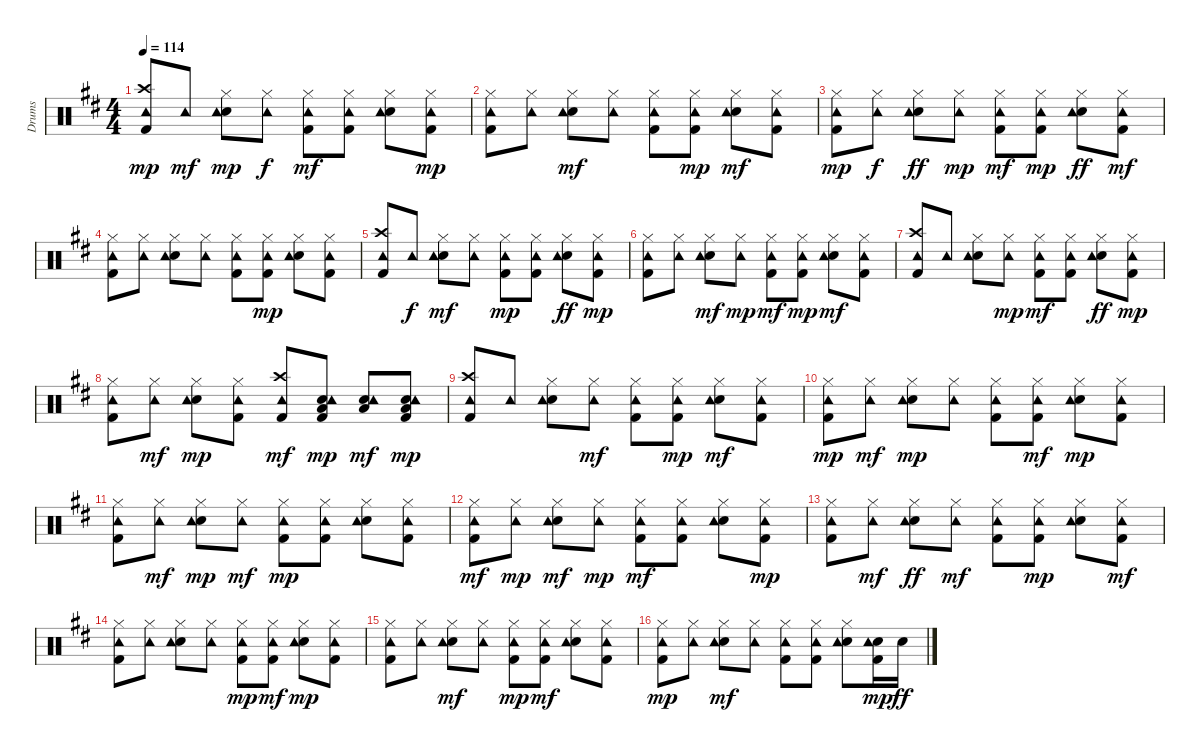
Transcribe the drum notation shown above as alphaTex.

\track ("Drums" "Drums") {instrument percussion}
\staff {score}
\articulation defaults
\ts (4 4)
\tempo 114
\clef neutral
\ks d
("Kick (hit) 2" "Crash high (hit)" "Tambourine (hit)").8{dy mp} "Tambourine (hit)".8{dy mf} ("Snare (hit) 2" "Hi-Hat (closed)" "Tambourine (hit)").8{dy mp} ("Hi-Hat (closed)" "Tambourine (hit)").8{dy f} ("Kick (hit) 2" "Hi-Hat (closed)" "Tambourine (hit)").8{dy mf} ("Kick (hit) 2" "Hi-Hat (closed)" "Tambourine (hit)").8 ("Snare (hit) 2" "Hi-Hat (closed)" "Tambourine (hit)").8 ("Kick (hit) 2" "Hi-Hat (closed)" "Tambourine (hit)").8{dy mp} |
("Kick (hit) 2" "Hi-Hat (closed)" "Tambourine (hit)").8 ("Hi-Hat (closed)" "Tambourine (hit)").8 ("Snare (hit) 2" "Hi-Hat (closed)" "Tambourine (hit)").8{dy mf} ("Hi-Hat (closed)" "Tambourine (hit)").8 ("Kick (hit) 2" "Hi-Hat (closed)" "Tambourine (hit)").8 ("Kick (hit) 2" "Hi-Hat (closed)" "Tambourine (hit)").8{dy mp} ("Snare (hit) 2" "Hi-Hat (closed)" "Tambourine (hit)").8{dy mf} ("Kick (hit) 2" "Hi-Hat (closed)" "Tambourine (hit)").8 |
("Kick (hit) 2" "Hi-Hat (closed)" "Tambourine (hit)").8{dy mp} ("Hi-Hat (closed)" "Tambourine (hit)").8{dy f} ("Snare (hit) 2" "Hi-Hat (closed)" "Tambourine (hit)").8{dy ff} ("Hi-Hat (closed)" "Tambourine (hit)").8{dy mp} ("Kick (hit) 2" "Hi-Hat (closed)" "Tambourine (hit)").8{dy mf} ("Kick (hit) 2" "Hi-Hat (closed)" "Tambourine (hit)").8{dy mp} ("Snare (hit) 2" "Hi-Hat (closed)" "Tambourine (hit)").8{dy ff} ("Kick (hit) 2" "Hi-Hat (closed)" "Tambourine (hit)").8{dy mf} |
("Kick (hit) 2" "Hi-Hat (closed)" "Tambourine (hit)").8 ("Hi-Hat (closed)" "Tambourine (hit)").8 ("Snare (hit) 2" "Hi-Hat (closed)" "Tambourine (hit)").8 ("Hi-Hat (closed)" "Tambourine (hit)").8 ("Kick (hit) 2" "Hi-Hat (closed)" "Tambourine (hit)").8 ("Kick (hit) 2" "Hi-Hat (closed)" "Tambourine (hit)").8{dy mp} ("Snare (hit) 2" "Hi-Hat (closed)" "Tambourine (hit)").8 ("Kick (hit) 2" "Hi-Hat (closed)" "Tambourine (hit)").8 |
("Kick (hit) 2" "Crash high (hit)" "Tambourine (hit)").8 "Tambourine (hit)".8{dy f} ("Snare (hit) 2" "Hi-Hat (closed)" "Tambourine (hit)").8{dy mf} ("Hi-Hat (closed)" "Tambourine (hit)").8 ("Kick (hit) 2" "Hi-Hat (closed)" "Tambourine (hit)").8{dy mp} ("Kick (hit) 2" "Hi-Hat (closed)" "Tambourine (hit)").8 ("Snare (hit) 2" "Hi-Hat (closed)" "Tambourine (hit)").8{dy ff} ("Kick (hit) 2" "Hi-Hat (closed)" "Tambourine (hit)").8{dy mp} |
("Kick (hit) 2" "Hi-Hat (closed)" "Tambourine (hit)").8 ("Hi-Hat (closed)" "Tambourine (hit)").8 ("Snare (hit) 2" "Hi-Hat (closed)" "Tambourine (hit)").8{dy mf} ("Hi-Hat (closed)" "Tambourine (hit)").8{dy mp} ("Kick (hit) 2" "Hi-Hat (closed)" "Tambourine (hit)").8{dy mf} ("Kick (hit) 2" "Hi-Hat (closed)" "Tambourine (hit)").8{dy mp} ("Snare (hit) 2" "Hi-Hat (closed)" "Tambourine (hit)").8{dy mf} ("Kick (hit) 2" "Hi-Hat (closed)" "Tambourine (hit)").8 |
("Kick (hit) 2" "Crash high (hit)" "Tambourine (hit)").8 "Tambourine (hit)".8 ("Snare (hit) 2" "Hi-Hat (closed)" "Tambourine (hit)").8 ("Hi-Hat (closed)" "Tambourine (hit)").8{dy mp} ("Kick (hit) 2" "Hi-Hat (closed)" "Tambourine (hit)").8{dy mf} ("Kick (hit) 2" "Hi-Hat (closed)" "Tambourine (hit)").8 ("Snare (hit) 2" "Hi-Hat (closed)" "Tambourine (hit)").8{dy ff} ("Kick (hit) 2" "Hi-Hat (closed)" "Tambourine (hit)").8{dy mp} |
("Kick (hit) 2" "Hi-Hat (closed)" "Tambourine (hit)").8 ("Hi-Hat (closed)" "Tambourine (hit)").8{dy mf} ("Snare (hit) 2" "Hi-Hat (closed)" "Tambourine (hit)").8{dy mp} ("Kick (hit) 2" "Hi-Hat (closed)" "Tambourine (hit)").8 ("Kick (hit) 2" "Crash high (hit)" "Tambourine (hit)").8{dy mf} ("Kick (hit) 2" "Snare (hit) 2" "Low Floor Tom (hit)" "Tambourine (hit)").8{dy mp} ("Snare (hit) 2" "Low Floor Tom (hit)" "Tambourine (hit)").8{dy mf} ("Kick (hit) 2" "Snare (hit) 2" "Low Floor Tom (hit)" "Tambourine (hit)").8{dy mp} |
("Kick (hit) 2" "Crash high (hit)" "Tambourine (hit)").8 "Tambourine (hit)".8 ("Snare (hit) 2" "Hi-Hat (closed)" "Tambourine (hit)").8 ("Hi-Hat (closed)" "Tambourine (hit)").8{dy mf} ("Kick (hit) 2" "Hi-Hat (closed)" "Tambourine (hit)").8 ("Kick (hit) 2" "Hi-Hat (closed)" "Tambourine (hit)").8{dy mp} ("Snare (hit) 2" "Hi-Hat (closed)" "Tambourine (hit)").8{dy mf} ("Kick (hit) 2" "Hi-Hat (closed)" "Tambourine (hit)").8 |
("Kick (hit) 2" "Hi-Hat (closed)" "Tambourine (hit)").8{dy mp} ("Hi-Hat (closed)" "Tambourine (hit)").8{dy mf} ("Snare (hit) 2" "Hi-Hat (closed)" "Tambourine (hit)").8{dy mp} ("Hi-Hat (closed)" "Tambourine (hit)").8 ("Kick (hit) 2" "Hi-Hat (closed)" "Tambourine (hit)").8 ("Kick (hit) 2" "Hi-Hat (closed)" "Tambourine (hit)").8{dy mf} ("Snare (hit) 2" "Hi-Hat (closed)" "Tambourine (hit)").8{dy mp} ("Kick (hit) 2" "Hi-Hat (closed)" "Tambourine (hit)").8 |
("Kick (hit) 2" "Hi-Hat (closed)" "Tambourine (hit)").8 ("Hi-Hat (closed)" "Tambourine (hit)").8{dy mf} ("Snare (hit) 2" "Hi-Hat (closed)" "Tambourine (hit)").8{dy mp} ("Hi-Hat (closed)" "Tambourine (hit)").8{dy mf} ("Kick (hit) 2" "Hi-Hat (closed)" "Tambourine (hit)").8{dy mp} ("Kick (hit) 2" "Hi-Hat (closed)" "Tambourine (hit)").8 ("Snare (hit) 2" "Hi-Hat (closed)" "Tambourine (hit)").8 ("Kick (hit) 2" "Hi-Hat (closed)" "Tambourine (hit)").8 |
("Kick (hit) 2" "Hi-Hat (closed)" "Tambourine (hit)").8{dy mf} ("Hi-Hat (closed)" "Tambourine (hit)").8{dy mp} ("Snare (hit) 2" "Hi-Hat (closed)" "Tambourine (hit)").8{dy mf} ("Hi-Hat (closed)" "Tambourine (hit)").8{dy mp} ("Kick (hit) 2" "Hi-Hat (closed)" "Tambourine (hit)").8{dy mf} ("Kick (hit) 2" "Hi-Hat (closed)" "Tambourine (hit)").8 ("Snare (hit) 2" "Hi-Hat (closed)" "Tambourine (hit)").8 ("Kick (hit) 2" "Hi-Hat (closed)" "Tambourine (hit)").8{dy mp} |
("Kick (hit) 2" "Hi-Hat (closed)" "Tambourine (hit)").8 ("Hi-Hat (closed)" "Tambourine (hit)").8{dy mf} ("Snare (hit) 2" "Hi-Hat (closed)" "Tambourine (hit)").8{dy ff} ("Hi-Hat (closed)" "Tambourine (hit)").8{dy mf} ("Kick (hit) 2" "Hi-Hat (closed)" "Tambourine (hit)").8 ("Kick (hit) 2" "Hi-Hat (closed)" "Tambourine (hit)").8{dy mp} ("Snare (hit) 2" "Hi-Hat (closed)" "Tambourine (hit)").8 ("Kick (hit) 2" "Hi-Hat (closed)" "Tambourine (hit)").8{dy mf} |
("Kick (hit) 2" "Hi-Hat (closed)" "Tambourine (hit)").8 ("Hi-Hat (closed)" "Tambourine (hit)").8 ("Snare (hit) 2" "Hi-Hat (closed)" "Tambourine (hit)").8 ("Hi-Hat (closed)" "Tambourine (hit)").8 ("Kick (hit) 2" "Hi-Hat (closed)" "Tambourine (hit)").8{dy mp} ("Kick (hit) 2" "Hi-Hat (closed)" "Tambourine (hit)").8{dy mf} ("Snare (hit) 2" "Hi-Hat (closed)" "Tambourine (hit)").8{dy mp} ("Kick (hit) 2" "Hi-Hat (closed)" "Tambourine (hit)").8 |
("Kick (hit) 2" "Hi-Hat (closed)" "Tambourine (hit)").8 ("Hi-Hat (closed)" "Tambourine (hit)").8 ("Snare (hit) 2" "Hi-Hat (closed)" "Tambourine (hit)").8{dy mf} ("Hi-Hat (closed)" "Tambourine (hit)").8 ("Kick (hit) 2" "Hi-Hat (closed)" "Tambourine (hit)").8{dy mp} ("Kick (hit) 2" "Hi-Hat (closed)" "Tambourine (hit)").8{dy mf} ("Snare (hit) 2" "Hi-Hat (closed)" "Tambourine (hit)").8 ("Kick (hit) 2" "Hi-Hat (closed)" "Tambourine (hit)").8 |
("Kick (hit) 2" "Hi-Hat (closed)" "Tambourine (hit)").8{dy mp} ("Hi-Hat (closed)" "Tambourine (hit)").8 ("Snare (hit) 2" "Hi-Hat (closed)" "Tambourine (hit)").8{dy mf} ("Hi-Hat (closed)" "Tambourine (hit)").8 ("Kick (hit) 2" "Hi-Hat (closed)" "Tambourine (hit)").8 ("Kick (hit) 2" "Hi-Hat (closed)" "Tambourine (hit)").8 ("Snare (hit) 2" "Hi-Hat (closed)" "Tambourine (hit)").8 ("Kick (hit) 2" "Snare (hit) 2" "Tambourine (hit)").16{dy mp} "Snare (hit) 2".16{dy ff}
